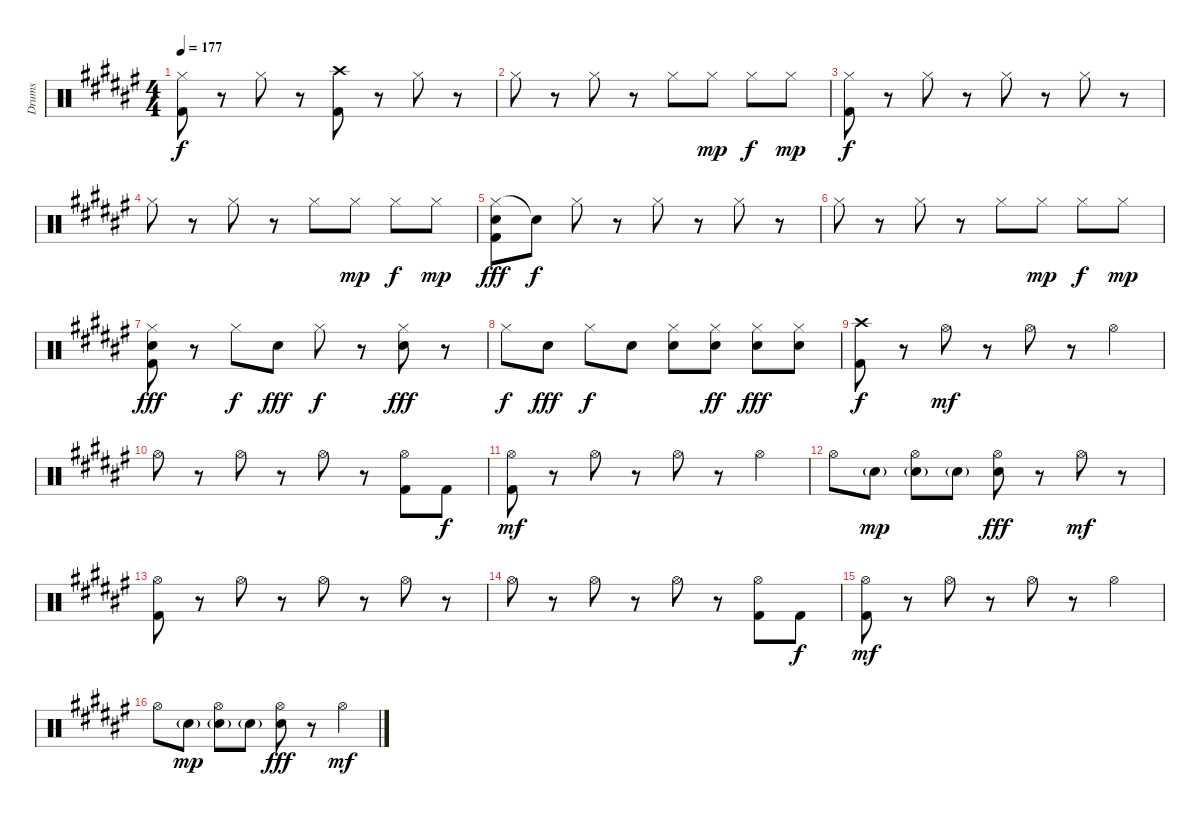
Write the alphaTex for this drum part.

\track ("Drums" "Drums") {instrument percussion}
\staff {score}
\articulation defaults
\ts (4 4)
\tempo 177
\clef neutral
\ks d#minor
("Hi-Hat (closed)" "Kick (hit) 2").8{dy f} r.8 "Hi-Hat (closed)".8 r.8 ("Crash high (hit)" "Kick (hit) 2").8 r.8 "Hi-Hat (closed)".8 r.8 |
"Hi-Hat (closed)".8 r.8 "Hi-Hat (closed)".8 r.8 "Hi-Hat (closed)".8 "Hi-Hat (closed)".8{dy mp} "Hi-Hat (closed)".8{dy f} "Hi-Hat (closed)".8{dy mp} |
("Hi-Hat (closed)" "Kick (hit) 2").8{dy f} r.8 "Hi-Hat (closed)".8 r.8 "Hi-Hat (closed)".8 r.8 "Hi-Hat (closed)".8 r.8 |
"Hi-Hat (closed)".8 r.8 "Hi-Hat (closed)".8 r.8 "Hi-Hat (closed)".8 "Hi-Hat (closed)".8{dy mp} "Hi-Hat (closed)".8{dy f} "Hi-Hat (closed)".8{dy mp} |
("Hi-Hat (closed)" "Snare (hit) 2" "Kick (hit) 2").8{dy fff} "Snare (hit)"{t}.8{dy f} "Hi-Hat (closed)".8 r.8 "Hi-Hat (closed)".8 r.8 "Hi-Hat (closed)".8 r.8 |
"Hi-Hat (closed)".8 r.8 "Hi-Hat (closed)".8 r.8 "Hi-Hat (closed)".8 "Hi-Hat (closed)".8{dy mp} "Hi-Hat (closed)".8{dy f} "Hi-Hat (closed)".8{dy mp} |
("Hi-Hat (closed)" "Snare (hit) 2" "Kick (hit) 2").8{dy fff} r.8 "Hi-Hat (closed)".8{dy f} "Snare (hit) 2".8{dy fff} "Hi-Hat (closed)".8{dy f} r.8 ("Hi-Hat (closed)" "Snare (hit) 2").8{dy fff} r.8 |
"Hi-Hat (closed)".8{dy f} "Snare (hit) 2".8{dy fff} "Hi-Hat (closed)".8{dy f} "Snare (hit) 2".8 ("Hi-Hat (closed)" "Snare (hit) 2").8 ("Hi-Hat (closed)" "Snare (hit) 2").8{dy ff} ("Hi-Hat (closed)" "Snare (hit) 2").8{dy fff} ("Hi-Hat (closed)" "Snare (hit) 2").8 |
("Crash high (hit)" "Kick (hit) 2").8{dy f} r.8 "Hi-Hat (open)".8{dy mf} r.8 "Hi-Hat (open)".8 r.8 "Hi-Hat (open)".4 |
"Hi-Hat (open)".8 r.8 "Hi-Hat (open)".8 r.8 "Hi-Hat (open)".8 r.8 ("Hi-Hat (open)" "Kick (hit) 2").8 "Kick (hit) 2".8{dy f} |
("Hi-Hat (open)" "Kick (hit) 2").8{dy mf} r.8 "Hi-Hat (open)".8 r.8 "Hi-Hat (open)".8 r.8 "Hi-Hat (open)".4 |
"Hi-Hat (open)".8 "Snare (hit) 2"{g}.8{dy mp} ("Hi-Hat (open)" "Snare (hit) 2"{g}).8 "Snare (hit) 2"{g}.8 ("Hi-Hat (open)" "Snare (hit) 2").8{dy fff} r.8 "Hi-Hat (open)".8{dy mf} r.8 |
("Hi-Hat (open)" "Kick (hit) 2").8 r.8 "Hi-Hat (open)".8 r.8 "Hi-Hat (open)".8 r.8 "Hi-Hat (open)".8 r.8 |
"Hi-Hat (open)".8 r.8 "Hi-Hat (open)".8 r.8 "Hi-Hat (open)".8 r.8 ("Hi-Hat (open)" "Kick (hit) 2").8 "Kick (hit) 2".8{dy f} |
("Hi-Hat (open)" "Kick (hit) 2").8{dy mf} r.8 "Hi-Hat (open)".8 r.8 "Hi-Hat (open)".8 r.8 "Hi-Hat (open)".4 |
"Hi-Hat (open)".8 "Snare (hit) 2"{g}.8{dy mp} ("Hi-Hat (open)" "Snare (hit) 2"{g}).8 "Snare (hit) 2"{g}.8 ("Hi-Hat (open)" "Snare (hit) 2").8{dy fff} r.8 "Hi-Hat (open)".4{dy mf}
